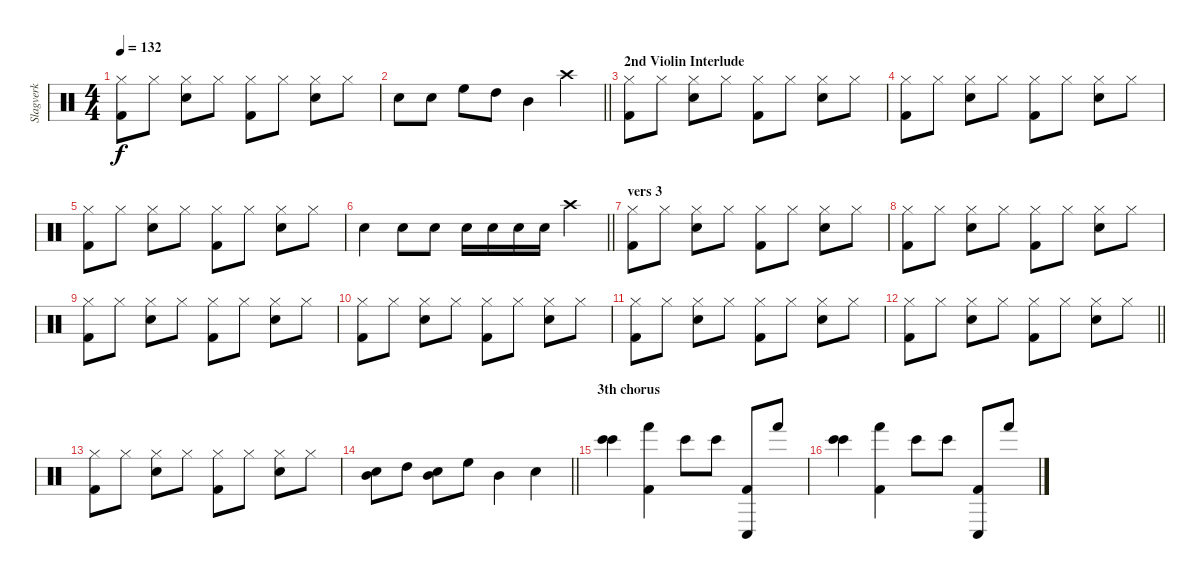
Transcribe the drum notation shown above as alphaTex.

\track ("Slagverk" "Slagverk") {instrument percussion}
\staff {score}
\articulation defaults
\ts (4 4)
\tempo 132
\clef neutral
\ks c
("Kick (hit) 2" "Hi-Hat (closed)").8{dy f} "Hi-Hat (closed)".8 ("Snare (hit) 2" "Hi-Hat (closed)").8 "Hi-Hat (closed)".8 ("Kick (hit) 2" "Hi-Hat (closed)").8 "Hi-Hat (closed)".8 ("Snare (hit) 2" "Hi-Hat (closed)").8 "Hi-Hat (closed)".8 |
\barLineRight lightlight "Snare (hit) 2".8 "Snare (hit) 2".8 "High Floor Tom (hit)".8 "High Tom (hit)".8 "Mid Tom (hit)".4 "Crash high (hit)".4
|
\section ("" "2nd Violin Interlude")
("Kick (hit) 2" "Hi-Hat (closed)").8 "Hi-Hat (closed)".8 ("Snare (hit) 2" "Hi-Hat (closed)").8 "Hi-Hat (closed)".8 ("Kick (hit) 2" "Hi-Hat (closed)").8 "Hi-Hat (closed)".8 ("Snare (hit) 2" "Hi-Hat (closed)").8 "Hi-Hat (closed)".8 |
("Kick (hit) 2" "Hi-Hat (closed)").8 "Hi-Hat (closed)".8 ("Snare (hit) 2" "Hi-Hat (closed)").8 "Hi-Hat (closed)".8 ("Kick (hit) 2" "Hi-Hat (closed)").8 "Hi-Hat (closed)".8 ("Snare (hit) 2" "Hi-Hat (closed)").8 "Hi-Hat (closed)".8 |
("Kick (hit) 2" "Hi-Hat (closed)").8 "Hi-Hat (closed)".8 ("Snare (hit) 2" "Hi-Hat (closed)").8 "Hi-Hat (closed)".8 ("Kick (hit) 2" "Hi-Hat (closed)").8 "Hi-Hat (closed)".8 ("Snare (hit) 2" "Hi-Hat (closed)").8 "Hi-Hat (closed)".8 |
\barLineRight lightlight "Snare (hit) 2".4 "Snare (hit) 2".8 "Snare (hit) 2".8 "Snare (hit) 2".16 "Snare (hit) 2".16 "Snare (hit) 2".16 "Snare (hit) 2".16 "Crash high (hit)".4
|
\section ("" "vers 3")
("Kick (hit) 2" "Hi-Hat (closed)").8 "Hi-Hat (closed)".8 ("Snare (hit) 2" "Hi-Hat (closed)").8 "Hi-Hat (closed)".8 ("Kick (hit) 2" "Hi-Hat (closed)").8 "Hi-Hat (closed)".8 ("Snare (hit) 2" "Hi-Hat (closed)").8 "Hi-Hat (closed)".8 |
("Kick (hit) 2" "Hi-Hat (closed)").8 "Hi-Hat (closed)".8 ("Snare (hit) 2" "Hi-Hat (closed)").8 "Hi-Hat (closed)".8 ("Kick (hit) 2" "Hi-Hat (closed)").8 "Hi-Hat (closed)".8 ("Snare (hit) 2" "Hi-Hat (closed)").8 "Hi-Hat (closed)".8 |
("Kick (hit) 2" "Hi-Hat (closed)").8 "Hi-Hat (closed)".8 ("Snare (hit) 2" "Hi-Hat (closed)").8 "Hi-Hat (closed)".8 ("Kick (hit) 2" "Hi-Hat (closed)").8 "Hi-Hat (closed)".8 ("Snare (hit) 2" "Hi-Hat (closed)").8 "Hi-Hat (closed)".8 |
("Kick (hit) 2" "Hi-Hat (closed)").8 "Hi-Hat (closed)".8 ("Snare (hit) 2" "Hi-Hat (closed)").8 "Hi-Hat (closed)".8 ("Kick (hit) 2" "Hi-Hat (closed)").8 "Hi-Hat (closed)".8 ("Snare (hit) 2" "Hi-Hat (closed)").8 "Hi-Hat (closed)".8 |
("Kick (hit) 2" "Hi-Hat (closed)").8 "Hi-Hat (closed)".8 ("Snare (hit) 2" "Hi-Hat (closed)").8 "Hi-Hat (closed)".8 ("Kick (hit) 2" "Hi-Hat (closed)").8 "Hi-Hat (closed)".8 ("Snare (hit) 2" "Hi-Hat (closed)").8 "Hi-Hat (closed)".8 |
\barLineRight lightlight
("Kick (hit) 2" "Hi-Hat (closed)").8 "Hi-Hat (closed)".8 ("Snare (hit) 2" "Hi-Hat (closed)").8 "Hi-Hat (closed)".8 ("Kick (hit) 2" "Hi-Hat (closed)").8 "Hi-Hat (closed)".8 ("Snare (hit) 2" "Hi-Hat (closed)").8 "Hi-Hat (closed)".8 |
("Kick (hit) 2" "Hi-Hat (closed)").8 "Hi-Hat (closed)".8 ("Snare (hit) 2" "Hi-Hat (closed)").8 "Hi-Hat (closed)".8 ("Kick (hit) 2" "Hi-Hat (closed)").8 "Hi-Hat (closed)".8 ("Snare (hit) 2" "Hi-Hat (closed)").8 "Hi-Hat (closed)".8 |
\barLineRight lightlight
("Snare (hit) 2" "Mid Tom (hit)").8 "High Tom (hit)".8 ("Snare (hit) 2" "Mid Tom (hit)").8 "High Floor Tom (hit)".8 "Mid Tom (hit)".4 "Snare (hit) 2".4 |
\section ("" "3th chorus")
("Bongo High (hit)" "Bongo High (hit)").4 ("Kick (hit) 2" "Hand (hit)").4 "Bongo High (hit)".8 "Bongo High (hit)".8 ("Kick (hit) 2" "Conga low (hit)").8 "Hand (hit)".8 |
("Bongo High (hit)" "Bongo High (hit)").4 ("Kick (hit) 2" "Hand (hit)").4 "Bongo High (hit)".8 "Bongo High (hit)".8 ("Kick (hit) 2" "Conga low (hit)").8 "Hand (hit)".8
